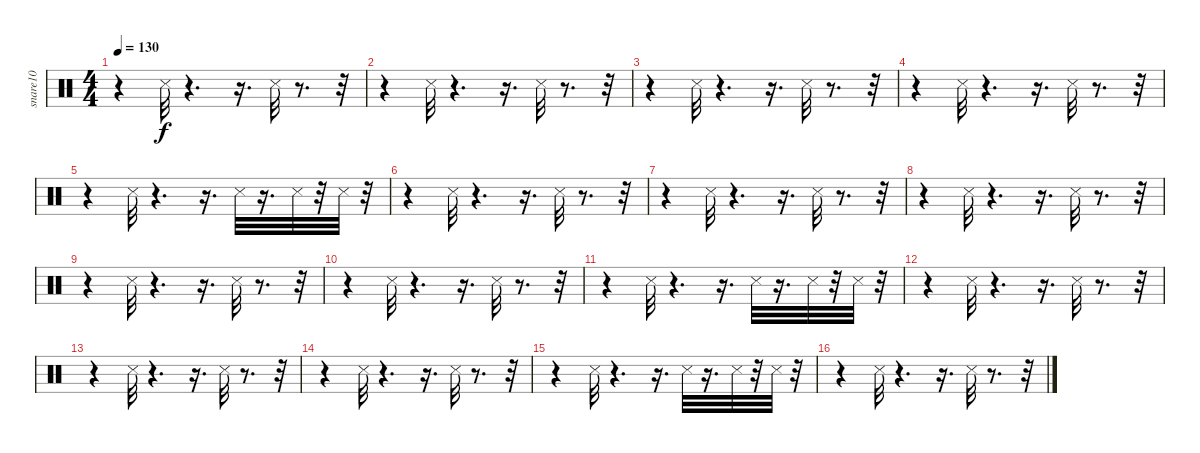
\track ("snare10             " "snare10   ") {instrument percussion}
\staff {score}
\articulation defaults
\ts (4 4)
\tempo 130
\clef neutral
\ks c
r.4{dy f} "Metronome (hit)".32 r.4{d} r.16{d} "Metronome (hit)".32 r.8{d} r.32 |
r.4 "Metronome (hit)".32 r.4{d} r.16{d} "Metronome (hit)".32 r.8{d} r.32 |
r.4 "Metronome (hit)".32 r.4{d} r.16{d} "Metronome (hit)".32 r.8{d} r.32 |
r.4 "Metronome (hit)".32 r.4{d} r.16{d} "Metronome (hit)".32 r.8{d} r.32 |
r.4 "Metronome (hit)".32 r.4{d} r.16{d} "Metronome (hit)".32 r.16{d} "Metronome (hit)".32 r.32 "Metronome (hit)".32 r.32 |
r.4 "Metronome (hit)".32 r.4{d} r.16{d} "Metronome (hit)".32 r.8{d} r.32 |
r.4 "Metronome (hit)".32 r.4{d} r.16{d} "Metronome (hit)".32 r.8{d} r.32 |
r.4 "Metronome (hit)".32 r.4{d} r.16{d} "Metronome (hit)".32 r.8{d} r.32 |
r.4 "Metronome (hit)".32 r.4{d} r.16{d} "Metronome (hit)".32 r.8{d} r.32 |
r.4 "Metronome (hit)".32 r.4{d} r.16{d} "Metronome (hit)".32 r.8{d} r.32 |
r.4 "Metronome (hit)".32 r.4{d} r.16{d} "Metronome (hit)".32 r.16{d} "Metronome (hit)".32 r.32 "Metronome (hit)".32 r.32 |
r.4 "Metronome (hit)".32 r.4{d} r.16{d} "Metronome (hit)".32 r.8{d} r.32 |
r.4 "Metronome (hit)".32 r.4{d} r.16{d} "Metronome (hit)".32 r.8{d} r.32 |
r.4 "Metronome (hit)".32 r.4{d} r.16{d} "Metronome (hit)".32 r.8{d} r.32 |
r.4 "Metronome (hit)".32 r.4{d} r.16{d} "Metronome (hit)".32 r.16{d} "Metronome (hit)".32 r.32 "Metronome (hit)".32 r.32 |
r.4 "Metronome (hit)".32 r.4{d} r.16{d} "Metronome (hit)".32 r.8{d} r.32
